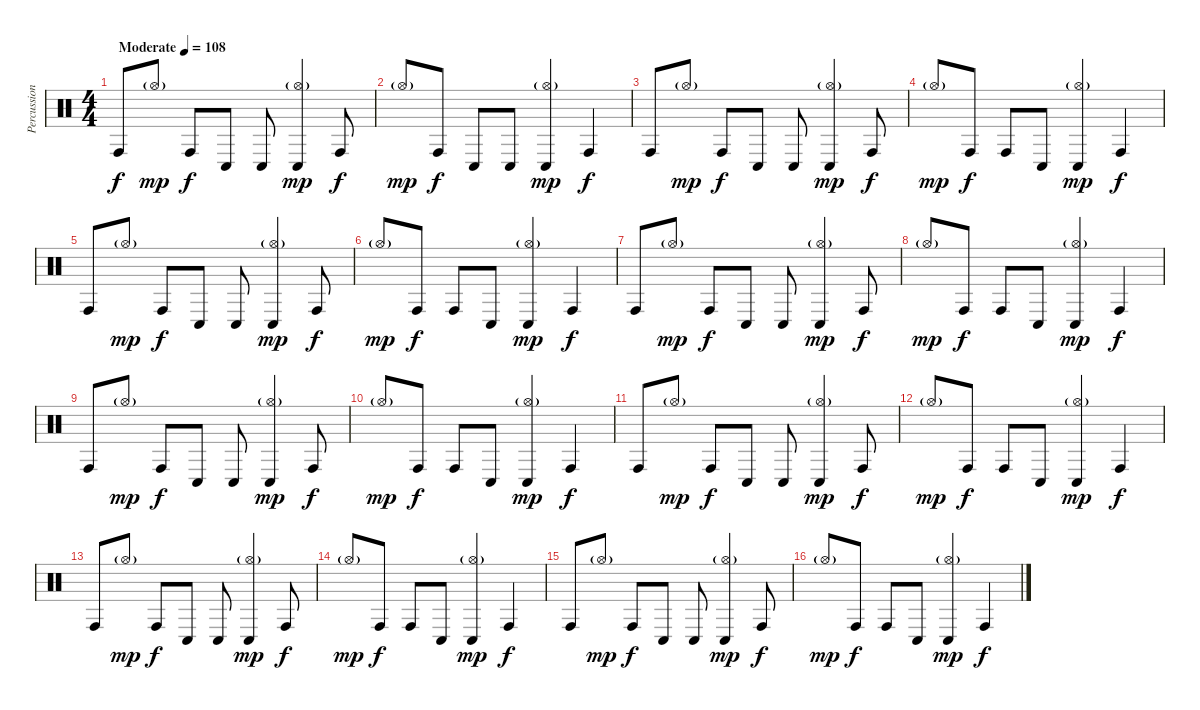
\track ("Percussion" "Percussion") {instrument percussion}
\staff {score}
\articulation defaults
\ts (4 4)
\tempo (108 "Moderate")
\clef neutral
\ks c "Conga high (hit)".8{dy f} "Hi-Hat (open)"{g}.8{dy mp} "Conga high (hit)".8{dy f} "Conga low (hit)".8 "Conga low (hit)".8
("Hi-Hat (open)"{g} "Conga low (hit)").4{dy mp} "Conga high (hit)".8{dy f} |
"Hi-Hat (open)"{g}.8{dy mp} "Conga high (hit)".8{dy f} "Conga low (hit)".8 "Conga low (hit)".8 ("Hi-Hat (open)"{g} "Conga low (hit)").4{dy mp} "Conga high (hit)".4{dy f} |
"Conga high (hit)".8 "Hi-Hat (open)"{g}.8{dy mp} "Conga high (hit)".8{dy f} "Conga low (hit)".8 "Conga low (hit)".8 ("Hi-Hat (open)"{g} "Conga low (hit)").4{dy mp} "Conga high (hit)".8{dy f} |
"Hi-Hat (open)"{g}.8{dy mp} "Conga high (hit)".8{dy f} "Conga high (hit)".8 "Conga low (hit)".8 ("Hi-Hat (open)"{g} "Conga low (hit)").4{dy mp} "Conga high (hit)".4{dy f} |
"Conga high (hit)".8 "Hi-Hat (open)"{g}.8{dy mp} "Conga high (hit)".8{dy f} "Conga low (hit)".8 "Conga low (hit)".8 ("Hi-Hat (open)"{g} "Conga low (hit)").4{dy mp} "Conga high (hit)".8{dy f} |
"Hi-Hat (open)"{g}.8{dy mp} "Conga high (hit)".8{dy f} "Conga high (hit)".8 "Conga low (hit)".8 ("Hi-Hat (open)"{g} "Conga low (hit)").4{dy mp} "Conga high (hit)".4{dy f} |
"Conga high (hit)".8 "Hi-Hat (open)"{g}.8{dy mp} "Conga high (hit)".8{dy f} "Conga low (hit)".8 "Conga low (hit)".8 ("Hi-Hat (open)"{g} "Conga low (hit)").4{dy mp} "Conga high (hit)".8{dy f} |
"Hi-Hat (open)"{g}.8{dy mp} "Conga high (hit)".8{dy f} "Conga high (hit)".8 "Conga low (hit)".8 ("Hi-Hat (open)"{g} "Conga low (hit)").4{dy mp} "Conga high (hit)".4{dy f} |
"Conga high (hit)".8 "Hi-Hat (open)"{g}.8{dy mp} "Conga high (hit)".8{dy f} "Conga low (hit)".8 "Conga low (hit)".8 ("Hi-Hat (open)"{g} "Conga low (hit)").4{dy mp} "Conga high (hit)".8{dy f} |
"Hi-Hat (open)"{g}.8{dy mp} "Conga high (hit)".8{dy f} "Conga high (hit)".8 "Conga low (hit)".8 ("Hi-Hat (open)"{g} "Conga low (hit)").4{dy mp} "Conga high (hit)".4{dy f} |
"Conga high (hit)".8 "Hi-Hat (open)"{g}.8{dy mp} "Conga high (hit)".8{dy f} "Conga low (hit)".8 "Conga low (hit)".8 ("Hi-Hat (open)"{g} "Conga low (hit)").4{dy mp} "Conga high (hit)".8{dy f} |
"Hi-Hat (open)"{g}.8{dy mp} "Conga high (hit)".8{dy f} "Conga high (hit)".8 "Conga low (hit)".8 ("Hi-Hat (open)"{g} "Conga low (hit)").4{dy mp} "Conga high (hit)".4{dy f} |
"Conga high (hit)".8 "Hi-Hat (open)"{g}.8{dy mp} "Conga high (hit)".8{dy f} "Conga low (hit)".8 "Conga low (hit)".8 ("Hi-Hat (open)"{g} "Conga low (hit)").4{dy mp} "Conga high (hit)".8{dy f} |
"Hi-Hat (open)"{g}.8{dy mp} "Conga high (hit)".8{dy f} "Conga high (hit)".8 "Conga low (hit)".8 ("Hi-Hat (open)"{g} "Conga low (hit)").4{dy mp} "Conga high (hit)".4{dy f} |
"Conga high (hit)".8 "Hi-Hat (open)"{g}.8{dy mp} "Conga high (hit)".8{dy f} "Conga low (hit)".8 "Conga low (hit)".8 ("Hi-Hat (open)"{g} "Conga low (hit)").4{dy mp} "Conga high (hit)".8{dy f} |
"Hi-Hat (open)"{g}.8{dy mp} "Conga high (hit)".8{dy f} "Conga high (hit)".8 "Conga low (hit)".8 ("Hi-Hat (open)"{g} "Conga low (hit)").4{dy mp} "Conga high (hit)".4{dy f}
